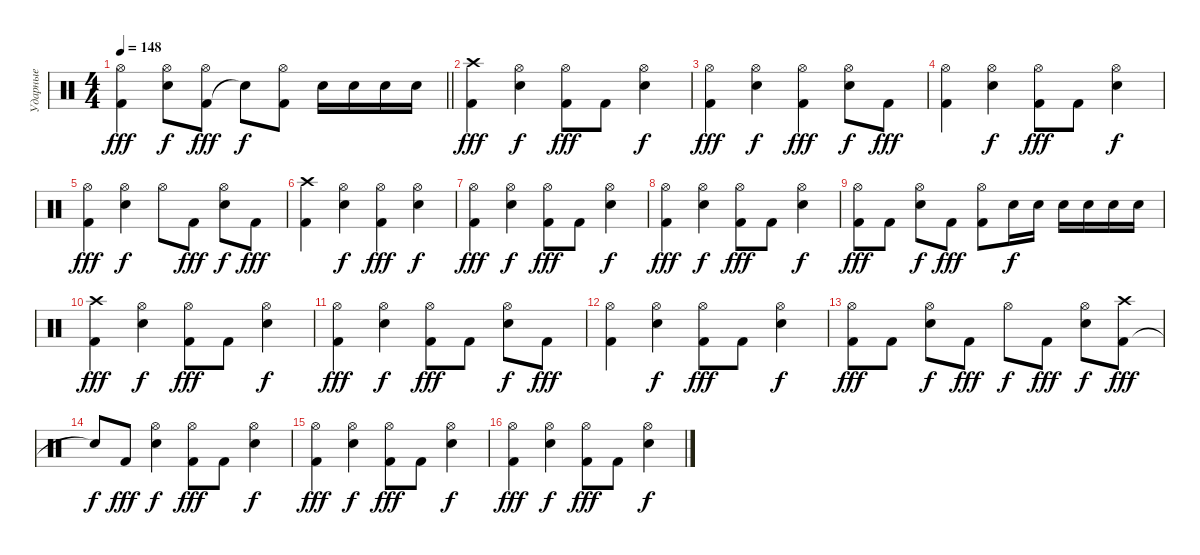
\track ("Ударные" "Ударные") {instrument percussion}
\staff {score}
\articulation defaults
\ts (4 4)
\tempo 148
\clef neutral
\barLineRight lightlight
\ks c
("Kick (hit) 2" "Hi-Hat (open)").4{dy fff} ("Snare (hit) 2" "Hi-Hat (open)").8{dy f} ("Kick (hit) 2" "Hi-Hat (open)").8{dy fff} "Snare (hit)"{t}.8{dy f} ("Kick (hit) 2" "Hi-Hat (open)").8 "Snare (hit) 2".16 "Snare (hit) 2".16 "Snare (hit) 2".16 "Snare (hit) 2".16 |
("Kick (hit) 2" "Crash high (hit)").4{dy fff} ("Snare (hit) 2" "Hi-Hat (open)").4{dy f} ("Kick (hit) 2" "Hi-Hat (open)").8{dy fff} "Kick (hit) 2".8 ("Snare (hit) 2" "Hi-Hat (open)").4{dy f} |
("Kick (hit) 2" "Hi-Hat (open)").4{dy fff} ("Snare (hit) 2" "Hi-Hat (open)").4{dy f} ("Kick (hit) 2" "Hi-Hat (open)").4{dy fff} ("Snare (hit) 2" "Hi-Hat (open)").8{dy f} "Kick (hit) 2".8{dy fff} |
("Kick (hit) 2" "Hi-Hat (open)").4 ("Snare (hit) 2" "Hi-Hat (open)").4{dy f} ("Kick (hit) 2" "Hi-Hat (open)").8{dy fff} "Kick (hit) 2".8 ("Snare (hit) 2" "Hi-Hat (open)").4{dy f} |
("Kick (hit) 2" "Hi-Hat (open)").4{dy fff} ("Snare (hit) 2" "Hi-Hat (open)").4{dy f} "Hi-Hat (open)".8 "Kick (hit) 2".8{dy fff} ("Snare (hit) 2" "Hi-Hat (open)").8{dy f} "Kick (hit) 2".8{dy fff} |
("Kick (hit) 2" "Crash high (hit)").4 ("Snare (hit) 2" "Hi-Hat (open)").4{dy f} ("Kick (hit) 2" "Hi-Hat (open)").4{dy fff} ("Snare (hit) 2" "Hi-Hat (open)").4{dy f} |
("Kick (hit) 2" "Hi-Hat (open)").4{dy fff} ("Snare (hit) 2" "Hi-Hat (open)").4{dy f} ("Kick (hit) 2" "Hi-Hat (open)").8{dy fff} "Kick (hit) 2".8 ("Snare (hit) 2" "Hi-Hat (open)").4{dy f} |
("Kick (hit) 2" "Hi-Hat (open)").4{dy fff} ("Snare (hit) 2" "Hi-Hat (open)").4{dy f} ("Kick (hit) 2" "Hi-Hat (open)").8{dy fff} "Kick (hit) 2".8 ("Snare (hit) 2" "Hi-Hat (open)").4{dy f} |
("Kick (hit) 2" "Hi-Hat (open)").8{dy fff} "Kick (hit) 2".8 ("Snare (hit) 2" "Hi-Hat (open)").8{dy f} "Kick (hit) 2".8{dy fff} ("Kick (hit) 2" "Hi-Hat (open)").8 "Snare (hit) 2".16{dy f} "Snare (hit) 2".16 "Snare (hit) 2".16 "Snare (hit) 2".16 "Snare (hit) 2".16 "Snare (hit) 2".16 |
("Kick (hit) 2" "Crash high (hit)").4{dy fff} ("Snare (hit) 2" "Hi-Hat (open)").4{dy f} ("Kick (hit) 2" "Hi-Hat (open)").8{dy fff} "Kick (hit) 2".8 ("Snare (hit) 2" "Hi-Hat (open)").4{dy f} |
("Kick (hit) 2" "Hi-Hat (open)").4{dy fff} ("Snare (hit) 2" "Hi-Hat (open)").4{dy f} ("Kick (hit) 2" "Hi-Hat (open)").8{dy fff} "Kick (hit) 2".8 ("Snare (hit) 2" "Hi-Hat (open)").8{dy f} "Kick (hit) 2".8{dy fff} |
("Kick (hit) 2" "Hi-Hat (open)").4 ("Snare (hit) 2" "Hi-Hat (open)").4{dy f} ("Kick (hit) 2" "Hi-Hat (open)").8{dy fff} "Kick (hit) 2".8 ("Snare (hit) 2" "Hi-Hat (open)").4{dy f} |
("Kick (hit) 2" "Hi-Hat (open)").8{dy fff} "Kick (hit) 2".8 ("Snare (hit) 2" "Hi-Hat (open)").8{dy f} "Kick (hit) 2".8{dy fff} "Hi-Hat (open)".8{dy f} "Kick (hit) 2".8{dy fff} ("Snare (hit) 2" "Hi-Hat (open)").8{dy f} ("Kick (hit) 2" "Crash high (hit)").8{dy fff} |
"Snare (hit)"{t}.8{dy f} "Kick (hit) 2".8{dy fff} ("Snare (hit) 2" "Hi-Hat (open)").4{dy f} ("Kick (hit) 2" "Hi-Hat (open)").8{dy fff} "Kick (hit) 2".8 ("Snare (hit) 2" "Hi-Hat (open)").4{dy f} |
("Kick (hit) 2" "Hi-Hat (open)").4{dy fff} ("Snare (hit) 2" "Hi-Hat (open)").4{dy f} ("Kick (hit) 2" "Hi-Hat (open)").8{dy fff} "Kick (hit) 2".8 ("Snare (hit) 2" "Hi-Hat (open)").4{dy f} |
("Kick (hit) 2" "Hi-Hat (open)").4{dy fff} ("Snare (hit) 2" "Hi-Hat (open)").4{dy f} ("Kick (hit) 2" "Hi-Hat (open)").8{dy fff} "Kick (hit) 2".8 ("Snare (hit) 2" "Hi-Hat (open)").4{dy f}
